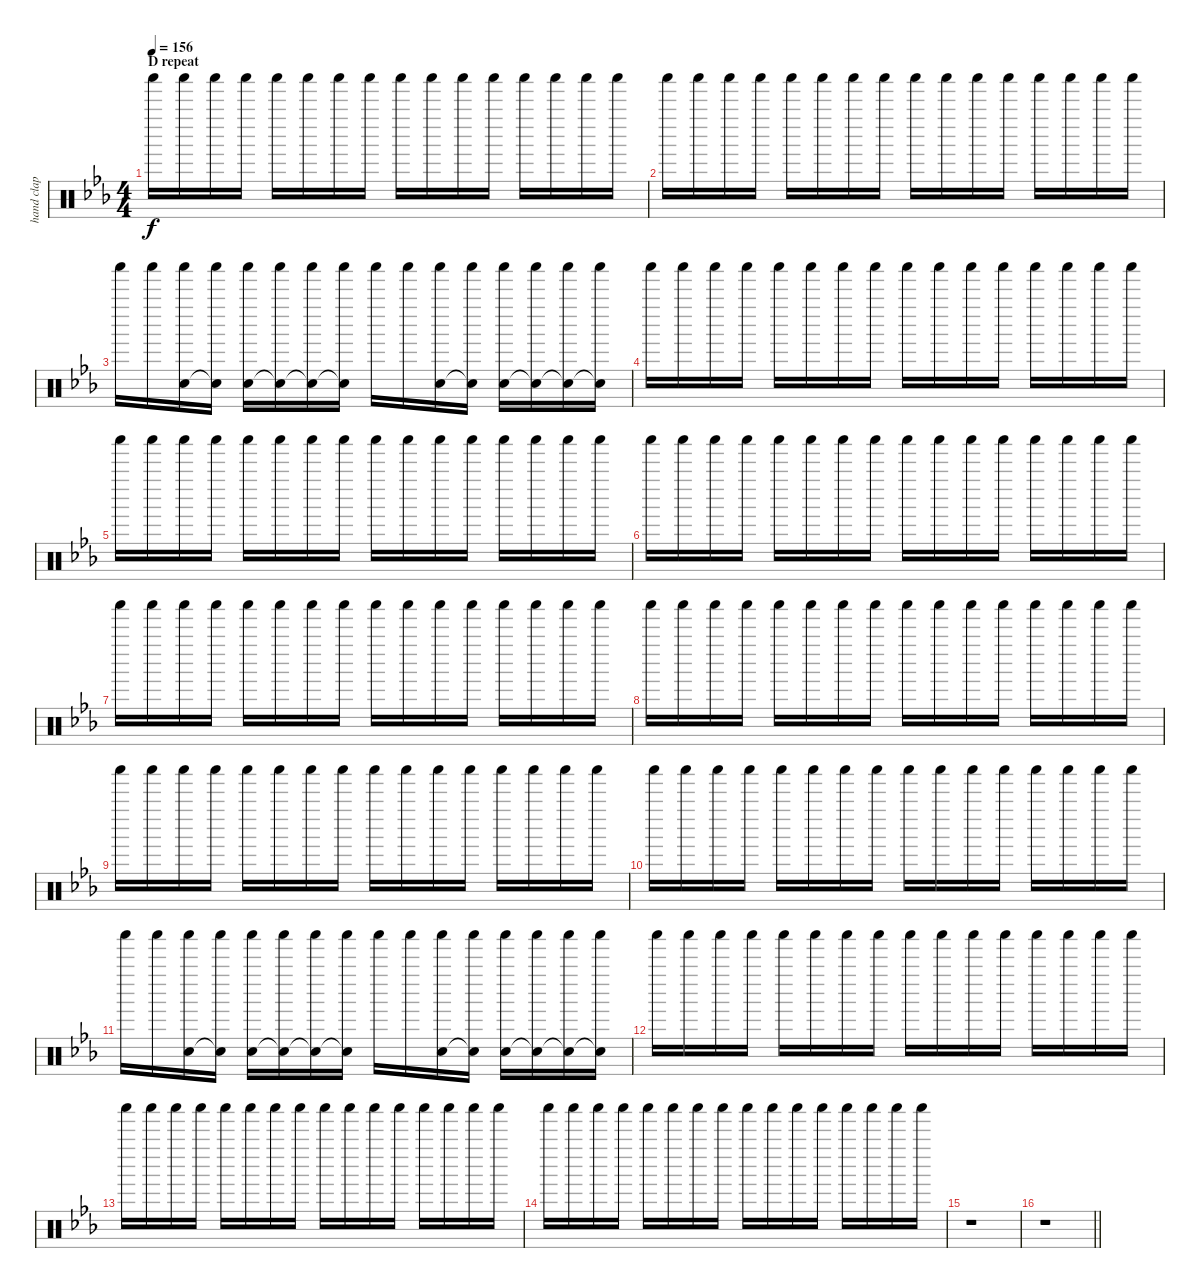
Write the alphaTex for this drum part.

\track ("hand clap + shaker" "hand clap ") {instrument percussion}
\staff {score}
\articulation defaults
\ts (4 4)
\section ("" "D repeat")
\tempo 156
\clef neutral
\ks eb "Shaker (hit)".16{dy f} "Shaker (hit)".16 "Shaker (hit)".16 "Shaker (hit)".16 "Shaker (hit)".16 "Shaker (hit)".16 "Shaker (hit)".16 "Shaker (hit)".16 "Shaker (hit)".16 "Shaker (hit)".16 "Shaker (hit)".16 "Shaker (hit)".16 "Shaker (hit)".16 "Shaker (hit)".16 "Shaker (hit)".16 "Shaker (hit)".16
|
"Shaker (hit)".16 "Shaker (hit)".16 "Shaker (hit)".16 "Shaker (hit)".16 "Shaker (hit)".16 "Shaker (hit)".16 "Shaker (hit)".16 "Shaker (hit)".16 "Shaker (hit)".16 "Shaker (hit)".16 "Shaker (hit)".16 "Shaker (hit)".16 "Shaker (hit)".16 "Shaker (hit)".16 "Shaker (hit)".16 "Shaker (hit)".16 |
"Shaker (hit)".16 "Shaker (hit)".16 ("Shaker (hit)" "Hand Clap (hit)").16 ("Shaker (hit)" "Snare (hit)"{t}).16 ("Shaker (hit)" "Hand Clap (hit)").16 ("Shaker (hit)" "Snare (hit)"{t}).16 ("Shaker (hit)" "Snare (hit)"{t}).16 ("Shaker (hit)" "Snare (hit)"{t}).16 "Shaker (hit)".16 "Shaker (hit)".16 ("Shaker (hit)" "Hand Clap (hit)").16 ("Shaker (hit)" "Hand Clap (hit)"{t}).16 ("Shaker (hit)" "Hand Clap (hit)").16 ("Shaker (hit)" "Snare (hit)"{t}).16 ("Shaker (hit)" "Snare (hit)"{t}).16 ("Shaker (hit)" "Snare (hit)"{t}).16 |
"Shaker (hit)".16 "Shaker (hit)".16 "Shaker (hit)".16 "Shaker (hit)".16 "Shaker (hit)".16 "Shaker (hit)".16 "Shaker (hit)".16 "Shaker (hit)".16 "Shaker (hit)".16 "Shaker (hit)".16 "Shaker (hit)".16 "Shaker (hit)".16 "Shaker (hit)".16 "Shaker (hit)".16 "Shaker (hit)".16 "Shaker (hit)".16 |
"Shaker (hit)".16 "Shaker (hit)".16 "Shaker (hit)".16 "Shaker (hit)".16 "Shaker (hit)".16 "Shaker (hit)".16 "Shaker (hit)".16 "Shaker (hit)".16 "Shaker (hit)".16 "Shaker (hit)".16 "Shaker (hit)".16 "Shaker (hit)".16 "Shaker (hit)".16 "Shaker (hit)".16 "Shaker (hit)".16 "Shaker (hit)".16 |
"Shaker (hit)".16 "Shaker (hit)".16 "Shaker (hit)".16 "Shaker (hit)".16 "Shaker (hit)".16 "Shaker (hit)".16 "Shaker (hit)".16 "Shaker (hit)".16 "Shaker (hit)".16 "Shaker (hit)".16 "Shaker (hit)".16 "Shaker (hit)".16 "Shaker (hit)".16 "Shaker (hit)".16 "Shaker (hit)".16 "Shaker (hit)".16 |
"Shaker (hit)".16 "Shaker (hit)".16 "Shaker (hit)".16 "Shaker (hit)".16 "Shaker (hit)".16 "Shaker (hit)".16 "Shaker (hit)".16 "Shaker (hit)".16 "Shaker (hit)".16 "Shaker (hit)".16 "Shaker (hit)".16 "Shaker (hit)".16 "Shaker (hit)".16 "Shaker (hit)".16 "Shaker (hit)".16 "Shaker (hit)".16 |
"Shaker (hit)".16 "Shaker (hit)".16 "Shaker (hit)".16 "Shaker (hit)".16 "Shaker (hit)".16 "Shaker (hit)".16 "Shaker (hit)".16 "Shaker (hit)".16 "Shaker (hit)".16 "Shaker (hit)".16 "Shaker (hit)".16 "Shaker (hit)".16 "Shaker (hit)".16 "Shaker (hit)".16 "Shaker (hit)".16 "Shaker (hit)".16 |
"Shaker (hit)".16 "Shaker (hit)".16 "Shaker (hit)".16 "Shaker (hit)".16 "Shaker (hit)".16 "Shaker (hit)".16 "Shaker (hit)".16 "Shaker (hit)".16 "Shaker (hit)".16 "Shaker (hit)".16 "Shaker (hit)".16 "Shaker (hit)".16 "Shaker (hit)".16 "Shaker (hit)".16 "Shaker (hit)".16 "Shaker (hit)".16 |
"Shaker (hit)".16 "Shaker (hit)".16 "Shaker (hit)".16 "Shaker (hit)".16 "Shaker (hit)".16 "Shaker (hit)".16 "Shaker (hit)".16 "Shaker (hit)".16 "Shaker (hit)".16 "Shaker (hit)".16 "Shaker (hit)".16 "Shaker (hit)".16 "Shaker (hit)".16 "Shaker (hit)".16 "Shaker (hit)".16 "Shaker (hit)".16 |
"Shaker (hit)".16 "Shaker (hit)".16 ("Shaker (hit)" "Hand Clap (hit)").16 ("Shaker (hit)" "Snare (hit)"{t}).16 ("Shaker (hit)" "Hand Clap (hit)").16 ("Shaker (hit)" "Snare (hit)"{t}).16 ("Shaker (hit)" "Snare (hit)"{t}).16 ("Shaker (hit)" "Snare (hit)"{t}).16 "Shaker (hit)".16 "Shaker (hit)".16 ("Shaker (hit)" "Hand Clap (hit)").16 ("Shaker (hit)" "Hand Clap (hit)"{t}).16 ("Shaker (hit)" "Hand Clap (hit)").16 ("Shaker (hit)" "Snare (hit)"{t}).16 ("Shaker (hit)" "Snare (hit)"{t}).16 ("Shaker (hit)" "Snare (hit)"{t}).16 |
"Shaker (hit)".16 "Shaker (hit)".16 "Shaker (hit)".16 "Shaker (hit)".16 "Shaker (hit)".16 "Shaker (hit)".16 "Shaker (hit)".16 "Shaker (hit)".16 "Shaker (hit)".16 "Shaker (hit)".16 "Shaker (hit)".16 "Shaker (hit)".16 "Shaker (hit)".16 "Shaker (hit)".16 "Shaker (hit)".16 "Shaker (hit)".16 |
"Shaker (hit)".16 "Shaker (hit)".16 "Shaker (hit)".16 "Shaker (hit)".16 "Shaker (hit)".16 "Shaker (hit)".16 "Shaker (hit)".16 "Shaker (hit)".16 "Shaker (hit)".16 "Shaker (hit)".16 "Shaker (hit)".16 "Shaker (hit)".16 "Shaker (hit)".16 "Shaker (hit)".16 "Shaker (hit)".16 "Shaker (hit)".16 |
"Shaker (hit)".16 "Shaker (hit)".16 "Shaker (hit)".16 "Shaker (hit)".16 "Shaker (hit)".16 "Shaker (hit)".16 "Shaker (hit)".16 "Shaker (hit)".16 "Shaker (hit)".16 "Shaker (hit)".16 "Shaker (hit)".16 "Shaker (hit)".16 "Shaker (hit)".16 "Shaker (hit)".16 "Shaker (hit)".16 "Shaker (hit)".16 |
r.1 |
\barLineRight lightlight
r.1
